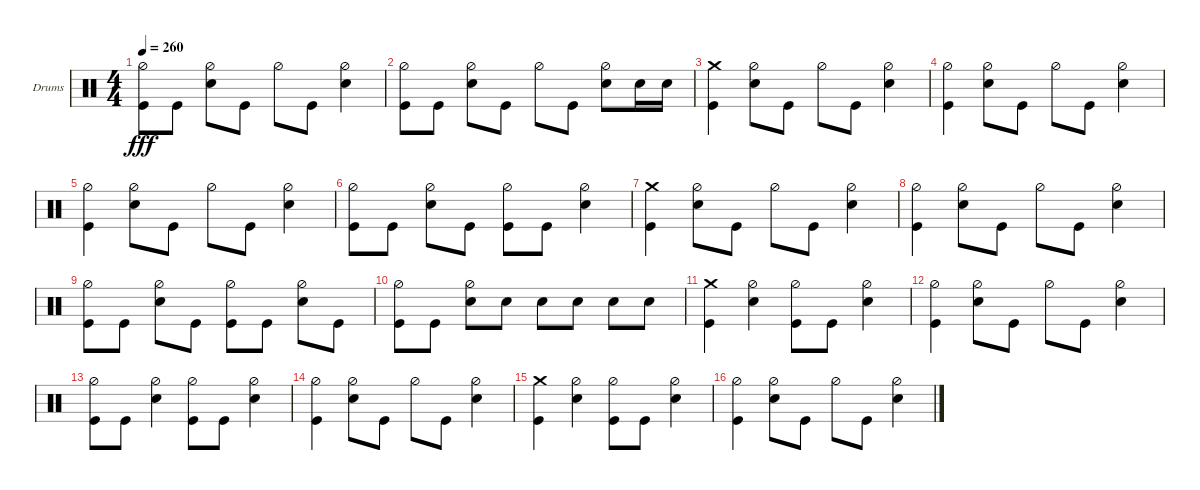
\defaultSystemsLayout 4
\bracketExtendMode groupsimilarinstruments
\firstSystemTrackNameOrientation horizontal
\otherSystemsTrackNameOrientation horizontal
\track ("Stefan Schwarzmann" "Drums") {instrument percussion}
\staff {score}
\articulation defaults
\ts (4 4)
\tempo 260
\clef neutral
\ks c
("Kick (hit)" "Hi-Hat (half)").8{dy fff} "Kick (hit)".8 ("Snare (hit) 2" "Hi-Hat (half)").8 "Kick (hit)".8 "Hi-Hat (half)".8 "Kick (hit)".8 ("Snare (hit) 2" "Hi-Hat (half)").4 |
("Kick (hit)" "Hi-Hat (half)").8 "Kick (hit)".8 ("Snare (hit) 2" "Hi-Hat (half)").8 "Kick (hit)".8 "Hi-Hat (half)".8 "Kick (hit)".8 ("Snare (hit) 2" "Hi-Hat (half)").8 "Snare (hit) 2".16 "Snare (hit) 2".16 |
("Kick (hit)" "Crash medium (hit)").4 ("Snare (hit) 2" "Hi-Hat (half)").8 "Kick (hit)".8 "Hi-Hat (half)".8 "Kick (hit)".8 ("Snare (hit) 2" "Hi-Hat (half)").4 |
("Kick (hit)" "Hi-Hat (half)").4 ("Snare (hit) 2" "Hi-Hat (half)").8 "Kick (hit)".8 "Hi-Hat (half)".8 "Kick (hit)".8 ("Snare (hit) 2" "Hi-Hat (half)").4 |
("Kick (hit)" "Hi-Hat (half)").4 ("Snare (hit) 2" "Hi-Hat (half)").8 "Kick (hit)".8 "Hi-Hat (half)".8 "Kick (hit)".8 ("Snare (hit) 2" "Hi-Hat (half)").4 |
("Kick (hit)" "Hi-Hat (half)").8 "Kick (hit)".8 ("Snare (hit) 2" "Hi-Hat (half)").8 "Kick (hit)".8 ("Kick (hit)" "Hi-Hat (half)").8 "Kick (hit)".8 ("Snare (hit) 2" "Hi-Hat (half)").4 |
("Kick (hit)" "Crash medium (hit)").4 ("Snare (hit) 2" "Hi-Hat (half)").8 "Kick (hit)".8 "Hi-Hat (half)".8 "Kick (hit)".8 ("Snare (hit) 2" "Hi-Hat (half)").4 |
("Kick (hit)" "Hi-Hat (half)").4 ("Snare (hit) 2" "Hi-Hat (half)").8 "Kick (hit)".8 "Hi-Hat (half)".8 "Kick (hit)".8 ("Snare (hit) 2" "Hi-Hat (half)").4 |
("Kick (hit)" "Hi-Hat (half)").8 "Kick (hit)".8 ("Snare (hit) 2" "Hi-Hat (half)").8 "Kick (hit)".8 ("Kick (hit)" "Hi-Hat (half)").8 "Kick (hit)".8 ("Snare (hit) 2" "Hi-Hat (half)").8 "Kick (hit)".8 |
("Kick (hit)" "Hi-Hat (half)").8 "Kick (hit)".8 ("Snare (hit) 2" "Hi-Hat (half)").8 "Snare (hit) 2".8 "Snare (hit) 2".8 "Snare (hit) 2".8 "Snare (hit) 2".8 "Snare (hit) 2".8 |
("Kick (hit)" "Crash medium (hit)").4 ("Snare (hit) 2" "Hi-Hat (half)").4 ("Kick (hit)" "Hi-Hat (half)").8 "Kick (hit)".8 ("Snare (hit) 2" "Hi-Hat (half)").4 |
("Kick (hit)" "Hi-Hat (half)").4 ("Snare (hit) 2" "Hi-Hat (half)").8 "Kick (hit)".8 "Hi-Hat (half)".8 "Kick (hit)".8 ("Snare (hit) 2" "Hi-Hat (half)").4 |
("Kick (hit)" "Hi-Hat (half)").8 "Kick (hit)".8 ("Snare (hit) 2" "Hi-Hat (half)").4 ("Kick (hit)" "Hi-Hat (half)").8 "Kick (hit)".8 ("Snare (hit) 2" "Hi-Hat (half)").4 |
("Kick (hit)" "Hi-Hat (half)").4 ("Snare (hit) 2" "Hi-Hat (half)").8 "Kick (hit)".8 "Hi-Hat (half)".8 "Kick (hit)".8 ("Snare (hit) 2" "Hi-Hat (half)").4 |
("Kick (hit)" "Crash medium (hit)").4 ("Snare (hit) 2" "Hi-Hat (half)").4 ("Kick (hit)" "Hi-Hat (half)").8 "Kick (hit)".8 ("Snare (hit) 2" "Hi-Hat (half)").4 |
("Kick (hit)" "Hi-Hat (half)").4 ("Snare (hit) 2" "Hi-Hat (half)").8 "Kick (hit)".8 "Hi-Hat (half)".8 "Kick (hit)".8 ("Snare (hit) 2" "Hi-Hat (half)").4
